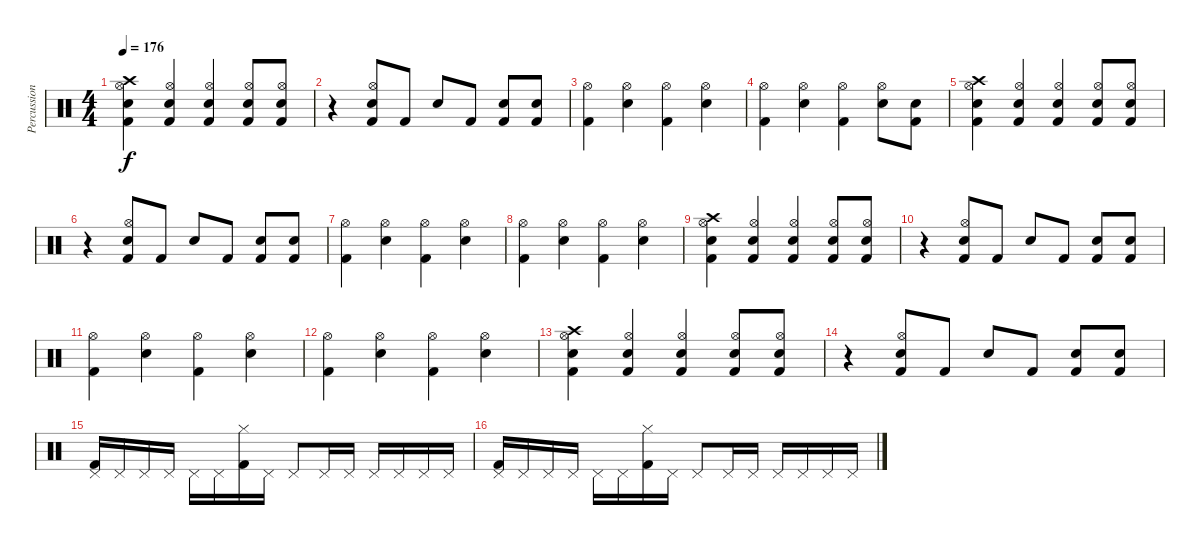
\track ("Percussion" "Percussion") {instrument percussion}
\staff {score}
\articulation defaults
\ts (4 4)
\tempo 176
\clef neutral
\ks c
("Crash high (hit)" "Snare (hit) 2" "Hi-Hat (open)" "Kick (hit) 2").4{dy f} ("Snare (hit) 2" "Hi-Hat (open)" "Kick (hit) 2").4 ("Snare (hit) 2" "Hi-Hat (open)" "Kick (hit) 2").4 ("Snare (hit) 2" "Hi-Hat (open)" "Kick (hit) 2").8 ("Snare (hit) 2" "Hi-Hat (open)" "Kick (hit) 2").8 |
r.4 ("Snare (hit) 2" "Hi-Hat (open)" "Kick (hit) 2").8 "Kick (hit) 2".8 "Snare (hit) 2".8 "Kick (hit) 2".8 ("Snare (hit) 2" "Kick (hit) 2").8 ("Snare (hit) 2" "Kick (hit) 2").8 |
("Hi-Hat (open)" "Kick (hit) 2").4 ("Hi-Hat (open)" "Snare (hit) 2").4 ("Hi-Hat (open)" "Kick (hit) 2").4 ("Hi-Hat (open)" "Snare (hit) 2").4 |
("Hi-Hat (open)" "Kick (hit) 2").4 ("Hi-Hat (open)" "Snare (hit) 2").4 ("Hi-Hat (open)" "Kick (hit) 2").4 ("Hi-Hat (open)" "Snare (hit) 2").8 ("Snare (hit) 2" "Kick (hit) 2").8 |
("Crash high (hit)" "Snare (hit) 2" "Hi-Hat (open)" "Kick (hit) 2").4 ("Snare (hit) 2" "Hi-Hat (open)" "Kick (hit) 2").4 ("Snare (hit) 2" "Hi-Hat (open)" "Kick (hit) 2").4 ("Snare (hit) 2" "Hi-Hat (open)" "Kick (hit) 2").8 ("Snare (hit) 2" "Hi-Hat (open)" "Kick (hit) 2").8 |
r.4 ("Snare (hit) 2" "Hi-Hat (open)" "Kick (hit) 2").8 "Kick (hit) 2".8 "Snare (hit) 2".8 "Kick (hit) 2".8 ("Snare (hit) 2" "Kick (hit) 2").8 ("Snare (hit) 2" "Kick (hit) 2").8 |
("Hi-Hat (open)" "Kick (hit) 2").4 ("Hi-Hat (open)" "Snare (hit) 2").4 ("Hi-Hat (open)" "Kick (hit) 2").4 ("Hi-Hat (open)" "Snare (hit) 2").4 |
("Hi-Hat (open)" "Kick (hit) 2").4 ("Hi-Hat (open)" "Snare (hit) 2").4 ("Hi-Hat (open)" "Kick (hit) 2").4 ("Hi-Hat (open)" "Snare (hit) 2").4 |
("Crash high (hit)" "Snare (hit) 2" "Hi-Hat (open)" "Kick (hit) 2").4 ("Snare (hit) 2" "Hi-Hat (open)" "Kick (hit) 2").4 ("Snare (hit) 2" "Hi-Hat (open)" "Kick (hit) 2").4 ("Snare (hit) 2" "Hi-Hat (open)" "Kick (hit) 2").8 ("Snare (hit) 2" "Hi-Hat (open)" "Kick (hit) 2").8 |
r.4 ("Snare (hit) 2" "Hi-Hat (open)" "Kick (hit) 2").8 "Kick (hit) 2".8 "Snare (hit) 2".8 "Kick (hit) 2".8 ("Snare (hit) 2" "Kick (hit) 2").8 ("Snare (hit) 2" "Kick (hit) 2").8 |
("Hi-Hat (open)" "Kick (hit) 2").4 ("Hi-Hat (open)" "Snare (hit) 2").4 ("Hi-Hat (open)" "Kick (hit) 2").4 ("Hi-Hat (open)" "Snare (hit) 2").4 |
("Hi-Hat (open)" "Kick (hit) 2").4 ("Hi-Hat (open)" "Snare (hit) 2").4 ("Hi-Hat (open)" "Kick (hit) 2").4 ("Hi-Hat (open)" "Snare (hit) 2").4 |
("Crash high (hit)" "Snare (hit) 2" "Hi-Hat (open)" "Kick (hit) 2").4 ("Snare (hit) 2" "Hi-Hat (open)" "Kick (hit) 2").4 ("Snare (hit) 2" "Hi-Hat (open)" "Kick (hit) 2").4 ("Snare (hit) 2" "Hi-Hat (open)" "Kick (hit) 2").8 ("Snare (hit) 2" "Hi-Hat (open)" "Kick (hit) 2").8 |
r.4 ("Snare (hit) 2" "Hi-Hat (open)" "Kick (hit) 2").8 "Kick (hit) 2".8 "Snare (hit) 2".8 "Kick (hit) 2".8 ("Snare (hit) 2" "Kick (hit) 2").8 ("Snare (hit) 2" "Kick (hit) 2").8 |
("Pedal Hi-Hat (hit)" "Kick (hit) 2").16 "Pedal Hi-Hat (hit)".16 "Pedal Hi-Hat (hit)".16 "Pedal Hi-Hat (hit)".16 "Pedal Hi-Hat (hit)".16 "Pedal Hi-Hat (hit)".16 ("Hi-Hat (closed)" "Kick (hit) 2").16 "Pedal Hi-Hat (hit)".16 "Pedal Hi-Hat (hit)".8 "Pedal Hi-Hat (hit)".16 "Pedal Hi-Hat (hit)".16 "Pedal Hi-Hat (hit)".16 "Pedal Hi-Hat (hit)".16 "Pedal Hi-Hat (hit)".16 "Pedal Hi-Hat (hit)".16 |
("Pedal Hi-Hat (hit)" "Kick (hit) 2").16 "Pedal Hi-Hat (hit)".16 "Pedal Hi-Hat (hit)".16 "Pedal Hi-Hat (hit)".16 "Pedal Hi-Hat (hit)".16 "Pedal Hi-Hat (hit)".16 ("Hi-Hat (closed)" "Kick (hit) 2").16 "Pedal Hi-Hat (hit)".16 "Pedal Hi-Hat (hit)".8 "Pedal Hi-Hat (hit)".16 "Pedal Hi-Hat (hit)".16 "Pedal Hi-Hat (hit)".16 "Pedal Hi-Hat (hit)".16 "Pedal Hi-Hat (hit)".16 "Pedal Hi-Hat (hit)".16
